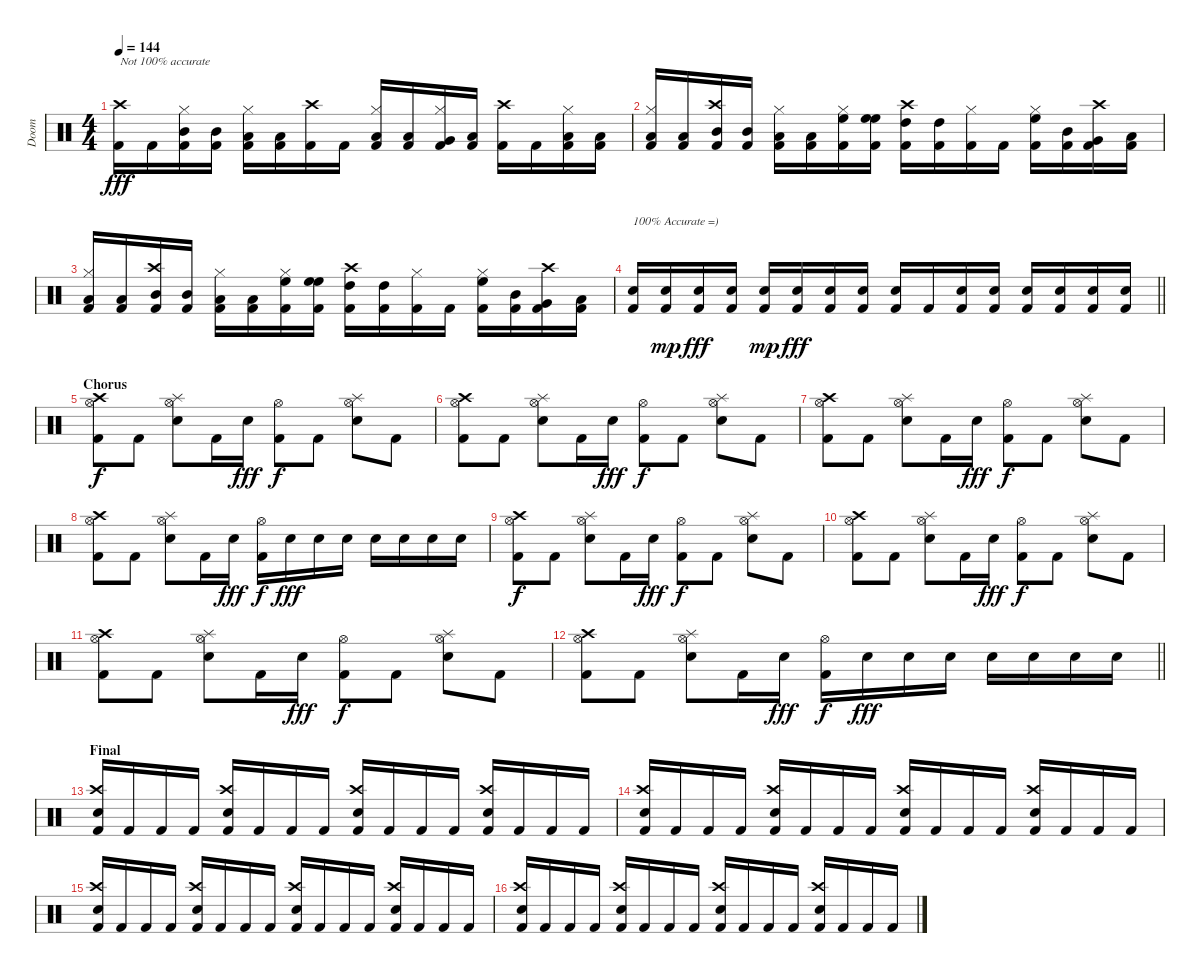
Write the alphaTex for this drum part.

\track ("Doom" "Doom") {instrument percussion}
\staff {score}
\articulation defaults
\ts (4 4)
\tempo 144
\clef neutral
\ks c
("Kick (hit) 2" "Crash high (hit)").16{txt "Not 100% accurate" dy fff} "Kick (hit) 2".16 ("Hi-Hat (closed)" "Kick (hit) 2" "Mid Tom (hit)").16 ("Mid Tom (hit)" "Kick (hit) 2").16 ("Kick (hit) 2" "Hi-Hat (closed)" "Low Tom (hit)").16 ("Kick (hit) 2" "Low Tom (hit)").16 ("Crash high (hit)" "Kick (hit) 2").16 "Kick (hit) 2".16 ("Kick (hit) 2" "Hi-Hat (closed)" "Low Tom (hit)").16 ("Kick (hit) 2" "Low Tom (hit)").16 ("Hi-Hat (closed)" "Kick (hit) 2" "Very Low Tom (hit)").16 ("Low Floor Tom (hit)" "Kick (hit) 2").16 ("Kick (hit) 2" "Crash high (hit)").16 "Kick (hit) 2".16 ("Hi-Hat (closed)" "Kick (hit) 2" "Low Floor Tom (hit)").16 ("Low Floor Tom (hit)" "Kick (hit) 2").16 |
("Kick (hit) 2" "Hi-Hat (closed)" "Low Floor Tom (hit)").16 ("Kick (hit) 2" "Low Floor Tom (hit)").16 ("Crash high (hit)" "Kick (hit) 2" "Mid Tom (hit)").16 ("Mid Tom (hit)" "Kick (hit) 2").16 ("Kick (hit) 2" "Hi-Hat (closed)" "Low Tom (hit)").16 ("Kick (hit) 2" "Low Tom (hit)").16 ("Hi-Hat (closed)" "Kick (hit) 2" "High Floor Tom (hit)").16 ("High Floor Tom (hit)" "High Floor Tom (hit)" "Kick (hit) 2").16 ("Kick (hit) 2" "Crash high (hit)" "High Tom (hit)").16 ("Kick (hit) 2" "High Tom (hit)").16 ("Hi-Hat (closed)" "Kick (hit) 2").16 "Kick (hit) 2".16 ("Kick (hit) 2" "Hi-Hat (closed)" "High Floor Tom (hit)").16 ("Kick (hit) 2" "Mid Tom (hit)").16 ("Crash high (hit)" "Kick (hit) 2" "Very Low Tom (hit)").16 ("Low Floor Tom (hit)" "Kick (hit) 2").16 |
("Kick (hit) 2" "Hi-Hat (closed)" "Low Floor Tom (hit)").16 ("Kick (hit) 2" "Low Floor Tom (hit)").16 ("Crash high (hit)" "Kick (hit) 2" "Mid Tom (hit)").16 ("Mid Tom (hit)" "Kick (hit) 2").16 ("Kick (hit) 2" "Hi-Hat (closed)" "Low Tom (hit)").16 ("Kick (hit) 2" "Low Tom (hit)").16 ("Hi-Hat (closed)" "Kick (hit) 2" "High Floor Tom (hit)").16 ("High Floor Tom (hit)" "High Floor Tom (hit)" "Kick (hit) 2").16 ("Kick (hit) 2" "Crash high (hit)" "High Tom (hit)").16 ("Kick (hit) 2" "High Tom (hit)").16 ("Hi-Hat (closed)" "Kick (hit) 2").16 "Kick (hit) 2".16 ("Kick (hit) 2" "Hi-Hat (closed)" "High Floor Tom (hit)").16 ("Kick (hit) 2" "Mid Tom (hit)").16 ("Crash high (hit)" "Kick (hit) 2" "Very Low Tom (hit)").16 ("Low Floor Tom (hit)" "Kick (hit) 2").16 |
\barLineRight lightlight
("Kick (hit) 2" "Electric Snare (hit)").16{txt "100% Accurate =)"} ("Kick (hit) 2" "Electric Snare (hit)").16{dy mp} ("Electric Snare (hit)" "Kick (hit) 2").16{dy fff} ("Electric Snare (hit)" "Kick (hit) 2").16 ("Kick (hit) 2" "Electric Snare (hit)").16{dy mp} ("Kick (hit) 2" "Electric Snare (hit)").16{dy fff} ("Electric Snare (hit)" "Kick (hit) 2").16 ("Electric Snare (hit)" "Kick (hit) 2").16 ("Kick (hit) 2" "Electric Snare (hit)").16 "Kick (hit) 2".16 ("Electric Snare (hit)" "Kick (hit) 2").16 ("Electric Snare (hit)" "Kick (hit) 2").16 ("Kick (hit) 2" "Electric Snare (hit)").16 ("Kick (hit) 2" "Electric Snare (hit)").16 ("Electric Snare (hit)" "Kick (hit) 2").16 ("Electric Snare (hit)" "Kick (hit) 2").16 |
\section ("" "Chorus")
("Kick (hit) 2" "Hi-Hat (open)" "Crash high (hit)").8{dy f} "Kick (hit) 2".8 ("Snare (hit) 2" "Hi-Hat (open)" "Splash (hit)").8 "Kick (hit) 2".16 "Snare (hit) 2".16{dy fff} ("Kick (hit) 2" "Hi-Hat (open)").8{dy f} "Kick (hit) 2".8 ("Snare (hit) 2" "Hi-Hat (open)" "Splash (hit)").8 "Kick (hit) 2".8 |
("Kick (hit) 2" "Hi-Hat (open)" "Crash high (hit)").8 "Kick (hit) 2".8 ("Snare (hit) 2" "Hi-Hat (open)" "Splash (hit)").8 "Kick (hit) 2".16 "Snare (hit) 2".16{dy fff} ("Kick (hit) 2" "Hi-Hat (open)").8{dy f} "Kick (hit) 2".8 ("Snare (hit) 2" "Hi-Hat (open)" "Splash (hit)").8 "Kick (hit) 2".8 |
("Kick (hit) 2" "Hi-Hat (open)" "Crash high (hit)").8 "Kick (hit) 2".8 ("Snare (hit) 2" "Hi-Hat (open)" "Splash (hit)").8 "Kick (hit) 2".16 "Snare (hit) 2".16{dy fff} ("Kick (hit) 2" "Hi-Hat (open)").8{dy f} "Kick (hit) 2".8 ("Snare (hit) 2" "Hi-Hat (open)" "Splash (hit)").8 "Kick (hit) 2".8 |
("Kick (hit) 2" "Hi-Hat (open)" "Crash high (hit)").8 "Kick (hit) 2".8 ("Snare (hit) 2" "Hi-Hat (open)" "Splash (hit)").8 "Kick (hit) 2".16 "Snare (hit) 2".16{dy fff} ("Kick (hit) 2" "Hi-Hat (open)").16{dy f} "Snare (hit) 2".16{dy fff} "Snare (hit) 2".16 "Snare (hit) 2".16 "Snare (hit) 2".16 "Snare (hit) 2".16 "Snare (hit) 2".16 "Snare (hit) 2".16 |
("Kick (hit) 2" "Hi-Hat (open)" "Crash high (hit)").8{dy f} "Kick (hit) 2".8 ("Snare (hit) 2" "Hi-Hat (open)" "Splash (hit)").8 "Kick (hit) 2".16 "Snare (hit) 2".16{dy fff} ("Kick (hit) 2" "Hi-Hat (open)").8{dy f} "Kick (hit) 2".8 ("Snare (hit) 2" "Hi-Hat (open)" "Splash (hit)").8 "Kick (hit) 2".8 |
("Kick (hit) 2" "Hi-Hat (open)" "Crash high (hit)").8 "Kick (hit) 2".8 ("Snare (hit) 2" "Hi-Hat (open)" "Splash (hit)").8 "Kick (hit) 2".16 "Snare (hit) 2".16{dy fff} ("Kick (hit) 2" "Hi-Hat (open)").8{dy f} "Kick (hit) 2".8 ("Snare (hit) 2" "Hi-Hat (open)" "Splash (hit)").8 "Kick (hit) 2".8 |
("Kick (hit) 2" "Hi-Hat (open)" "Crash high (hit)").8 "Kick (hit) 2".8 ("Snare (hit) 2" "Hi-Hat (open)" "Splash (hit)").8 "Kick (hit) 2".16 "Snare (hit) 2".16{dy fff} ("Kick (hit) 2" "Hi-Hat (open)").8{dy f} "Kick (hit) 2".8 ("Snare (hit) 2" "Hi-Hat (open)" "Splash (hit)").8 "Kick (hit) 2".8 |
\barLineRight lightlight
("Kick (hit) 2" "Hi-Hat (open)" "Crash high (hit)").8 "Kick (hit) 2".8 ("Snare (hit) 2" "Hi-Hat (open)" "Splash (hit)").8 "Kick (hit) 2".16 "Snare (hit) 2".16{dy fff} ("Kick (hit) 2" "Hi-Hat (open)").16{dy f} "Snare (hit) 2".16{dy fff} "Snare (hit) 2".16 "Snare (hit) 2".16 "Snare (hit) 2".16 "Snare (hit) 2".16 "Snare (hit) 2".16 "Snare (hit) 2".16 |
\section ("" "Final")
("Crash high (hit)" "Snare (hit) 2" "Kick (hit) 2").16 "Kick (hit) 2".16 "Kick (hit) 2".16 "Kick (hit) 2".16 ("Crash high (hit)" "Snare (hit) 2" "Kick (hit) 2").16 "Kick (hit) 2".16 "Kick (hit) 2".16 "Kick (hit) 2".16 ("Crash high (hit)" "Snare (hit) 2" "Kick (hit) 2").16 "Kick (hit) 2".16 "Kick (hit) 2".16 "Kick (hit) 2".16 ("Crash high (hit)" "Snare (hit) 2" "Kick (hit) 2").16 "Kick (hit) 2".16 "Kick (hit) 2".16 "Kick (hit) 2".16 |
("Crash high (hit)" "Snare (hit) 2" "Kick (hit) 2").16 "Kick (hit) 2".16 "Kick (hit) 2".16 "Kick (hit) 2".16 ("Crash high (hit)" "Snare (hit) 2" "Kick (hit) 2").16 "Kick (hit) 2".16 "Kick (hit) 2".16 "Kick (hit) 2".16 ("Crash high (hit)" "Snare (hit) 2" "Kick (hit) 2").16 "Kick (hit) 2".16 "Kick (hit) 2".16 "Kick (hit) 2".16 ("Crash high (hit)" "Snare (hit) 2" "Kick (hit) 2").16 "Kick (hit) 2".16 "Kick (hit) 2".16 "Kick (hit) 2".16 |
("Crash high (hit)" "Snare (hit) 2" "Kick (hit) 2").16 "Kick (hit) 2".16 "Kick (hit) 2".16 "Kick (hit) 2".16 ("Crash high (hit)" "Snare (hit) 2" "Kick (hit) 2").16 "Kick (hit) 2".16 "Kick (hit) 2".16 "Kick (hit) 2".16 ("Crash high (hit)" "Snare (hit) 2" "Kick (hit) 2").16 "Kick (hit) 2".16 "Kick (hit) 2".16 "Kick (hit) 2".16 ("Crash high (hit)" "Snare (hit) 2" "Kick (hit) 2").16 "Kick (hit) 2".16 "Kick (hit) 2".16 "Kick (hit) 2".16 |
("Crash high (hit)" "Snare (hit) 2" "Kick (hit) 2").16 "Kick (hit) 2".16 "Kick (hit) 2".16 "Kick (hit) 2".16 ("Crash high (hit)" "Snare (hit) 2" "Kick (hit) 2").16 "Kick (hit) 2".16 "Kick (hit) 2".16 "Kick (hit) 2".16 ("Crash high (hit)" "Snare (hit) 2" "Kick (hit) 2").16 "Kick (hit) 2".16 "Kick (hit) 2".16 "Kick (hit) 2".16 ("Crash high (hit)" "Snare (hit) 2" "Kick (hit) 2").16 "Kick (hit) 2".16 "Kick (hit) 2".16 "Kick (hit) 2".16
